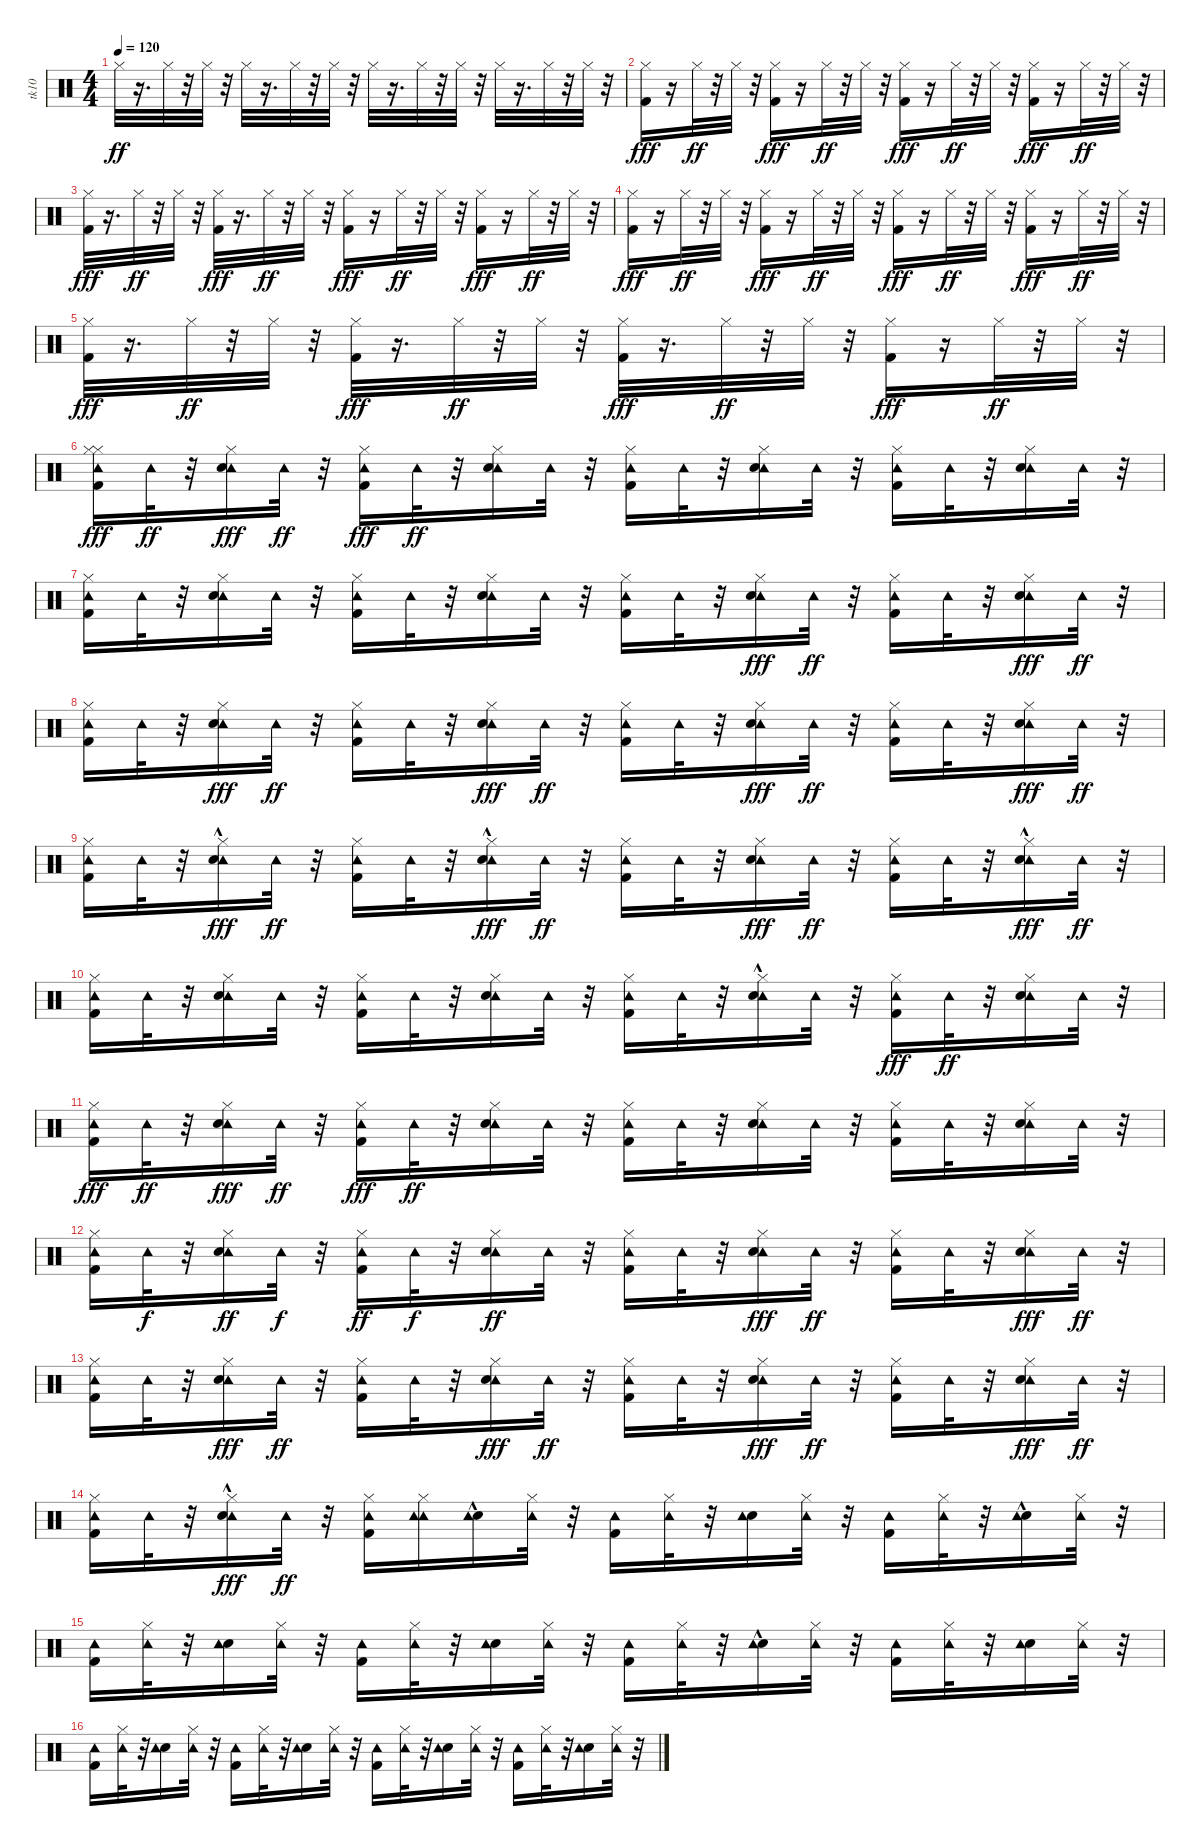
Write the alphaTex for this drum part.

\track ("tk10" "tk10") {instrument percussion}
\staff {score}
\articulation defaults
\ts (4 4)
\tempo 120
\clef neutral
\ks c "Hi-Hat (closed)".32{dy ff}
r.16{d} "Hi-Hat (closed)".32 r.32 "Hi-Hat (closed)".32 r.32 "Hi-Hat (closed)".32 r.16{d} "Hi-Hat (closed)".32 r.32 "Hi-Hat (closed)".32 r.32 "Hi-Hat (closed)".32 r.16{d} "Hi-Hat (closed)".32 r.32 "Hi-Hat (closed)".32 r.32 "Hi-Hat (closed)".32 r.16{d} "Hi-Hat (closed)".32 r.32 "Hi-Hat (closed)".32 r.32 |
("Hi-Hat (closed)" "Kick (hit) 2").16{dy fff} r.16 "Hi-Hat (closed)".32{dy ff} r.32 "Hi-Hat (closed)".32 r.32 ("Hi-Hat (closed)" "Kick (hit) 2").16{dy fff} r.16 "Hi-Hat (closed)".32{dy ff} r.32 "Hi-Hat (closed)".32 r.32 ("Hi-Hat (closed)" "Kick (hit) 2").16{dy fff} r.16 "Hi-Hat (closed)".32{dy ff} r.32 "Hi-Hat (closed)".32 r.32 ("Hi-Hat (closed)" "Kick (hit) 2").16{dy fff} r.16 "Hi-Hat (closed)".32{dy ff} r.32 "Hi-Hat (closed)".32 r.32 |
("Hi-Hat (closed)" "Kick (hit) 2").32{dy fff} r.16{d} "Hi-Hat (closed)".32{dy ff} r.32 "Hi-Hat (closed)".32 r.32 ("Hi-Hat (closed)" "Kick (hit) 2").32{dy fff} r.16{d} "Hi-Hat (closed)".32{dy ff} r.32 "Hi-Hat (closed)".32 r.32 ("Hi-Hat (closed)" "Kick (hit) 2").16{dy fff} r.16 "Hi-Hat (closed)".32{dy ff} r.32 "Hi-Hat (closed)".32 r.32 ("Hi-Hat (closed)" "Kick (hit) 2").16{dy fff} r.16 "Hi-Hat (closed)".32{dy ff} r.32 "Hi-Hat (closed)".32 r.32 |
("Hi-Hat (closed)" "Kick (hit) 2").16{dy fff} r.16 "Hi-Hat (closed)".32{dy ff} r.32 "Hi-Hat (closed)".32 r.32 ("Hi-Hat (closed)" "Kick (hit) 2").16{dy fff} r.16 "Hi-Hat (closed)".32{dy ff} r.32 "Hi-Hat (closed)".32 r.32 ("Hi-Hat (closed)" "Kick (hit) 2").16{dy fff} r.16 "Hi-Hat (closed)".32{dy ff} r.32 "Hi-Hat (closed)".32 r.32 ("Hi-Hat (closed)" "Kick (hit) 2").16{dy fff} r.16 "Hi-Hat (closed)".32{dy ff} r.32 "Hi-Hat (closed)".32 r.32 |
("Hi-Hat (closed)" "Kick (hit) 2").32{dy fff} r.16{d} "Hi-Hat (closed)".32{dy ff} r.32 "Hi-Hat (closed)".32 r.32 ("Hi-Hat (closed)" "Kick (hit) 2").32{dy fff} r.16{d} "Hi-Hat (closed)".32{dy ff} r.32 "Hi-Hat (closed)".32 r.32 ("Hi-Hat (closed)" "Kick (hit) 2").32{dy fff} r.16{d} "Hi-Hat (closed)".32{dy ff} r.32 "Hi-Hat (closed)".32 r.32 ("Hi-Hat (closed)" "Kick (hit) 2").16{dy fff} r.16 "Hi-Hat (closed)".32{dy ff} r.32 "Hi-Hat (closed)".32 r.32 |
("Tambourine (hit)" "Hi-Hat (closed)" "Hi-Hat (closed)" "Kick (hit) 2").16{dy fff} "Tambourine (hit)".32{dy ff} r.32 ("Tambourine (hit)" "Hi-Hat (closed)" "Snare (hit) 2").16{dy fff} "Tambourine (hit)".32{dy ff} r.32 ("Tambourine (hit)" "Hi-Hat (closed)" "Kick (hit) 2").16{dy fff} "Tambourine (hit)".32{dy ff} r.32 ("Tambourine (hit)" "Hi-Hat (closed)" "Snare (hit) 2").16 "Tambourine (hit)".32 r.32 ("Tambourine (hit)" "Hi-Hat (closed)" "Kick (hit) 2").16 "Tambourine (hit)".32 r.32 ("Tambourine (hit)" "Hi-Hat (closed)" "Snare (hit) 2").16 "Tambourine (hit)".32 r.32 ("Tambourine (hit)" "Hi-Hat (closed)" "Kick (hit) 2").16 "Tambourine (hit)".32 r.32 ("Tambourine (hit)" "Hi-Hat (closed)" "Snare (hit) 2").16 "Tambourine (hit)".32 r.32 |
("Tambourine (hit)" "Hi-Hat (closed)" "Kick (hit) 2").16 "Tambourine (hit)".32 r.32 ("Tambourine (hit)" "Hi-Hat (closed)" "Snare (hit) 2").16 "Tambourine (hit)".32 r.32 ("Tambourine (hit)" "Hi-Hat (closed)" "Kick (hit) 2").16 "Tambourine (hit)".32 r.32 ("Tambourine (hit)" "Hi-Hat (closed)" "Snare (hit) 2").16 "Tambourine (hit)".32 r.32 ("Tambourine (hit)" "Hi-Hat (closed)" "Kick (hit) 2").16 "Tambourine (hit)".32 r.32 ("Tambourine (hit)" "Hi-Hat (closed)" "Snare (hit) 2").16{dy fff} "Tambourine (hit)".32{dy ff} r.32 ("Tambourine (hit)" "Hi-Hat (closed)" "Kick (hit) 2").16 "Tambourine (hit)".32 r.32 ("Tambourine (hit)" "Hi-Hat (closed)" "Snare (hit) 2").16{dy fff} "Tambourine (hit)".32{dy ff} r.32 |
("Tambourine (hit)" "Hi-Hat (closed)" "Kick (hit) 2").16 "Tambourine (hit)".32 r.32 ("Tambourine (hit)" "Hi-Hat (closed)" "Snare (hit) 2").16{dy fff} "Tambourine (hit)".32{dy ff} r.32 ("Tambourine (hit)" "Hi-Hat (closed)" "Kick (hit) 2").16 "Tambourine (hit)".32 r.32 ("Tambourine (hit)" "Hi-Hat (closed)" "Snare (hit) 2").16{dy fff} "Tambourine (hit)".32{dy ff} r.32 ("Tambourine (hit)" "Hi-Hat (closed)" "Kick (hit) 2").16 "Tambourine (hit)".32 r.32 ("Tambourine (hit)" "Hi-Hat (closed)" "Snare (hit) 2").16{dy fff} "Tambourine (hit)".32{dy ff} r.32 ("Tambourine (hit)" "Hi-Hat (closed)" "Kick (hit) 2").16 "Tambourine (hit)".32 r.32 ("Tambourine (hit)" "Hi-Hat (closed)" "Snare (hit) 2").16{dy fff} "Tambourine (hit)".32{dy ff} r.32 |
("Tambourine (hit)" "Hi-Hat (closed)" "Kick (hit) 2").16 "Tambourine (hit)".32 r.32 ("Tambourine (hit)" "Hi-Hat (closed)" "Snare (hit) 2"{hac}).16{dy fff} "Tambourine (hit)".32{dy ff} r.32 ("Tambourine (hit)" "Hi-Hat (closed)" "Kick (hit) 2").16 "Tambourine (hit)".32 r.32 ("Tambourine (hit)" "Hi-Hat (closed)" "Snare (hit) 2"{hac}).16{dy fff} "Tambourine (hit)".32{dy ff} r.32 ("Tambourine (hit)" "Hi-Hat (closed)" "Kick (hit) 2").16 "Tambourine (hit)".32 r.32 ("Tambourine (hit)" "Hi-Hat (closed)" "Snare (hit) 2").16{dy fff} "Tambourine (hit)".32{dy ff} r.32 ("Tambourine (hit)" "Hi-Hat (closed)" "Kick (hit) 2").16 "Tambourine (hit)".32 r.32 ("Tambourine (hit)" "Hi-Hat (closed)" "Snare (hit) 2"{hac}).16{dy fff} "Tambourine (hit)".32{dy ff} r.32 |
("Tambourine (hit)" "Hi-Hat (closed)" "Kick (hit) 2").16 "Tambourine (hit)".32 r.32 ("Tambourine (hit)" "Hi-Hat (closed)" "Snare (hit) 2").16 "Tambourine (hit)".32 r.32 ("Tambourine (hit)" "Hi-Hat (closed)" "Kick (hit) 2").16 "Tambourine (hit)".32 r.32 ("Hi-Hat (closed)" "Tambourine (hit)" "Snare (hit) 2").16 "Tambourine (hit)".32 r.32 ("Tambourine (hit)" "Hi-Hat (closed)" "Kick (hit) 2").16 "Tambourine (hit)".32 r.32 ("Tambourine (hit)" "Hi-Hat (closed)" "Snare (hit) 2"{hac}).16 "Tambourine (hit)".32 r.32 ("Tambourine (hit)" "Hi-Hat (closed)" "Kick (hit) 2").16{dy fff} "Tambourine (hit)".32{dy ff} r.32 ("Tambourine (hit)" "Hi-Hat (closed)" "Snare (hit) 2").16 "Tambourine (hit)".32 r.32 |
("Tambourine (hit)" "Hi-Hat (closed)" "Kick (hit) 2").16{dy fff} "Tambourine (hit)".32{dy ff} r.32 ("Tambourine (hit)" "Hi-Hat (closed)" "Snare (hit) 2").16{dy fff} "Tambourine (hit)".32{dy ff} r.32 ("Tambourine (hit)" "Hi-Hat (closed)" "Kick (hit) 2").16{dy fff} "Tambourine (hit)".32{dy ff} r.32 ("Tambourine (hit)" "Hi-Hat (closed)" "Snare (hit) 2").16 "Tambourine (hit)".32 r.32 ("Tambourine (hit)" "Hi-Hat (closed)" "Kick (hit) 2").16 "Tambourine (hit)".32 r.32 ("Tambourine (hit)" "Hi-Hat (closed)" "Snare (hit) 2").16 "Tambourine (hit)".32 r.32 ("Tambourine (hit)" "Hi-Hat (closed)" "Kick (hit) 2").16 "Tambourine (hit)".32 r.32 ("Tambourine (hit)" "Hi-Hat (closed)" "Snare (hit) 2").16 "Tambourine (hit)".32 r.32 |
("Tambourine (hit)" "Hi-Hat (closed)" "Kick (hit) 2").16 "Tambourine (hit)".32{dy f} r.32 ("Tambourine (hit)" "Hi-Hat (closed)" "Snare (hit) 2").16{dy ff} "Tambourine (hit)".32{dy f} r.32 ("Tambourine (hit)" "Hi-Hat (closed)" "Kick (hit) 2").16{dy ff} "Tambourine (hit)".32{dy f} r.32 ("Tambourine (hit)" "Hi-Hat (closed)" "Snare (hit) 2").16{dy ff} "Tambourine (hit)".32 r.32 ("Tambourine (hit)" "Hi-Hat (closed)" "Kick (hit) 2").16 "Tambourine (hit)".32 r.32 ("Tambourine (hit)" "Hi-Hat (closed)" "Snare (hit) 2").16{dy fff} "Tambourine (hit)".32{dy ff} r.32 ("Tambourine (hit)" "Hi-Hat (closed)" "Kick (hit) 2").16 "Tambourine (hit)".32 r.32 ("Tambourine (hit)" "Hi-Hat (closed)" "Snare (hit) 2").16{dy fff} "Tambourine (hit)".32{dy ff} r.32 |
("Tambourine (hit)" "Hi-Hat (closed)" "Kick (hit) 2").16 "Tambourine (hit)".32 r.32 ("Tambourine (hit)" "Hi-Hat (closed)" "Snare (hit) 2").16{dy fff} "Tambourine (hit)".32{dy ff} r.32 ("Tambourine (hit)" "Hi-Hat (closed)" "Kick (hit) 2").16 "Tambourine (hit)".32 r.32 ("Tambourine (hit)" "Hi-Hat (closed)" "Snare (hit) 2").16{dy fff} "Tambourine (hit)".32{dy ff} r.32 ("Tambourine (hit)" "Hi-Hat (closed)" "Kick (hit) 2").16 "Tambourine (hit)".32 r.32 ("Tambourine (hit)" "Hi-Hat (closed)" "Snare (hit) 2").16{dy fff} "Tambourine (hit)".32{dy ff} r.32 ("Tambourine (hit)" "Hi-Hat (closed)" "Kick (hit) 2").16 "Tambourine (hit)".32 r.32 ("Tambourine (hit)" "Hi-Hat (closed)" "Snare (hit) 2").16{dy fff} "Tambourine (hit)".32{dy ff} r.32 |
("Tambourine (hit)" "Hi-Hat (closed)" "Kick (hit) 2").16 "Tambourine (hit)".32 r.32 ("Tambourine (hit)" "Hi-Hat (closed)" "Snare (hit) 2"{hac}).16{dy fff} "Tambourine (hit)".32{dy ff} r.32 ("Tambourine (hit)" "Hi-Hat (closed)" "Kick (hit) 2").16 ("Tambourine (hit)" "Hi-Hat (closed)" "Tambourine (hit)").16 ("Snare (hit) 2"{hac} "Tambourine (hit)").16 ("Hi-Hat (closed)" "Tambourine (hit)").32 r.32 ("Kick (hit) 2" "Tambourine (hit)").16 ("Hi-Hat (closed)" "Tambourine (hit)").32 r.32 ("Snare (hit) 2" "Tambourine (hit)").16 ("Tambourine (hit)" "Hi-Hat (closed)").32 r.32 ("Kick (hit) 2" "Tambourine (hit)").16 ("Tambourine (hit)" "Hi-Hat (closed)").32 r.32 ("Snare (hit) 2"{hac} "Tambourine (hit)").16 ("Tambourine (hit)" "Hi-Hat (closed)").32 r.32 |
("Kick (hit) 2" "Tambourine (hit)").16 ("Hi-Hat (closed)" "Tambourine (hit)").32 r.32 ("Snare (hit) 2" "Tambourine (hit)").16 ("Hi-Hat (closed)" "Tambourine (hit)").32 r.32 ("Kick (hit) 2" "Tambourine (hit)").16 ("Tambourine (hit)" "Hi-Hat (closed)").32 r.32 ("Snare (hit) 2" "Tambourine (hit)").16 ("Hi-Hat (closed)" "Tambourine (hit)").32 r.32 ("Kick (hit) 2" "Tambourine (hit)").16 ("Tambourine (hit)" "Hi-Hat (closed)").32 r.32 ("Snare (hit) 2"{hac} "Tambourine (hit)").16 ("Tambourine (hit)" "Hi-Hat (closed)").32 r.32 ("Kick (hit) 2" "Tambourine (hit)").16 ("Tambourine (hit)" "Hi-Hat (closed)").32 r.32 ("Snare (hit) 2" "Tambourine (hit)").16 ("Tambourine (hit)" "Hi-Hat (closed)").32 r.32 |
("Kick (hit) 2" "Tambourine (hit)").16 ("Tambourine (hit)" "Hi-Hat (closed)").32 r.32 ("Snare (hit) 2" "Tambourine (hit)").16 ("Hi-Hat (closed)" "Tambourine (hit)").32 r.32 ("Kick (hit) 2" "Tambourine (hit)").16 ("Tambourine (hit)" "Hi-Hat (closed)").32 r.32 ("Snare (hit) 2" "Tambourine (hit)").16 ("Hi-Hat (closed)" "Tambourine (hit)").32 r.32 ("Kick (hit) 2" "Tambourine (hit)").16 ("Tambourine (hit)" "Hi-Hat (closed)").32 r.32 ("Snare (hit) 2" "Tambourine (hit)").16 ("Tambourine (hit)" "Hi-Hat (closed)").32 r.32 ("Kick (hit) 2" "Tambourine (hit)").16 ("Hi-Hat (closed)" "Tambourine (hit)").32 r.32 ("Snare (hit) 2" "Tambourine (hit)").16 ("Hi-Hat (closed)" "Tambourine (hit)").32 r.32
